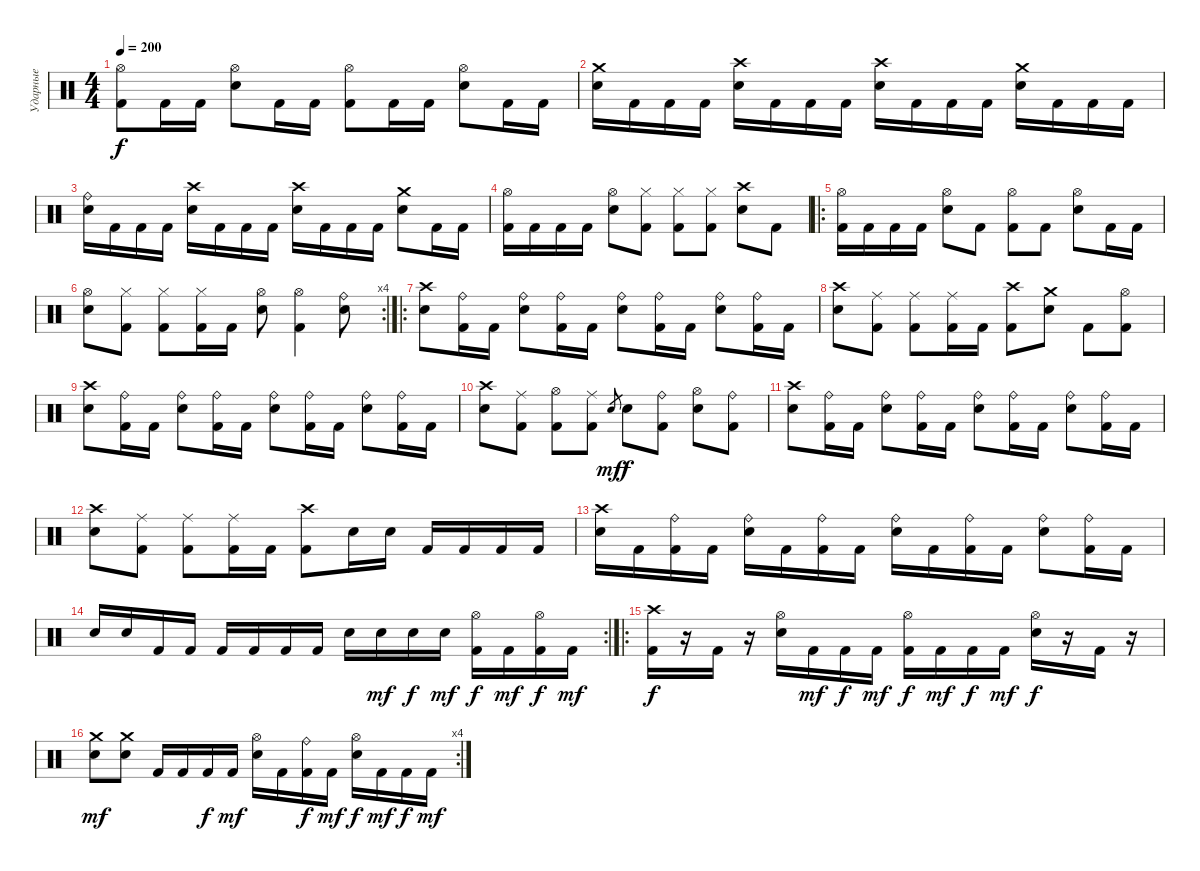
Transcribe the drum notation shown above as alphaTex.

\track ("Ударные" "Ударные") {instrument percussion}
\staff {score}
\articulation defaults
\ts (4 4)
\tempo 200
\clef neutral
\ks c
("Hi-Hat (open)" "Kick (hit) 2").8{dy f} "Kick (hit) 2".16 "Kick (hit) 2".16 ("Hi-Hat (open)" "Electric Snare (hit)").8 "Kick (hit) 2".16 "Kick (hit) 2".16 ("Hi-Hat (open)" "Kick (hit) 2").8 "Kick (hit) 2".16 "Kick (hit) 2".16 ("Hi-Hat (open)" "Electric Snare (hit)").8 "Kick (hit) 2".16 "Kick (hit) 2".16 |
("Crash medium (hit)" "Electric Snare (hit)").16 "Kick (hit) 2".16 "Kick (hit) 2".16 "Kick (hit) 2".16 ("Crash high (hit)" "Electric Snare (hit)").16 "Kick (hit) 2".16 "Kick (hit) 2".16 "Kick (hit) 2".16 ("Crash high (hit)" "Electric Snare (hit)").16 "Kick (hit) 2".16 "Kick (hit) 2".16 "Kick (hit) 2".16 ("Crash medium (hit)" "Electric Snare (hit)").16 "Kick (hit) 2".16 "Kick (hit) 2".16 "Kick (hit) 2".16 |
("Ride (bell)" "Electric Snare (hit)").16 "Kick (hit) 2".16 "Kick (hit) 2".16 "Kick (hit) 2".16 ("Crash high (hit)" "Electric Snare (hit)").16 "Kick (hit) 2".16 "Kick (hit) 2".16 "Kick (hit) 2".16 ("Crash high (hit)" "Electric Snare (hit)").16 "Kick (hit) 2".16 "Kick (hit) 2".16 "Kick (hit) 2".16 ("Crash medium (hit)" "Electric Snare (hit)").8 "Kick (hit) 2".16 "Kick (hit) 2".16 |
("Hi-Hat (open)" "Kick (hit) 2").16 "Kick (hit) 2".16 "Kick (hit) 2".16 "Kick (hit) 2".16 ("Hi-Hat (open)" "Electric Snare (hit)").8 ("Hi-Hat (closed)" "Kick (hit) 2").8 ("Hi-Hat (closed)" "Kick (hit) 2").8 ("Hi-Hat (closed)" "Kick (hit) 2").8 ("Crash high (hit)" "Electric Snare (hit)").8 "Kick (hit) 2".8 |
\ro
("Hi-Hat (open)" "Kick (hit) 2").16 "Kick (hit) 2".16 "Kick (hit) 2".16 "Kick (hit) 2".16 ("Hi-Hat (open)" "Electric Snare (hit)").8 "Kick (hit) 2".8 ("Hi-Hat (open)" "Kick (hit) 2").8 "Kick (hit) 2".8 ("Hi-Hat (open)" "Electric Snare (hit)").8 "Kick (hit) 2".16 "Kick (hit) 2".16 |
\rc 4
("Hi-Hat (open)" "Electric Snare (hit)").8 ("Hi-Hat (closed)" "Kick (hit) 2").8 ("Hi-Hat (closed)" "Kick (hit) 2").8 ("Hi-Hat (closed)" "Kick (hit) 2").16 "Kick (hit) 2".16 ("Hi-Hat (open)" "Electric Snare (hit)").8 ("Hi-Hat (open)" "Kick (hit) 2").4 ("Ride (bell)" "Electric Snare (hit)").8 |
\ro
("Crash high (hit)" "Electric Snare (hit)").8 ("Ride (bell)" "Kick (hit) 2").16 "Kick (hit) 2".16 ("Ride (bell)" "Electric Snare (hit)").8 ("Ride (bell)" "Kick (hit) 2").16 "Kick (hit) 2".16 ("Ride (bell)" "Electric Snare (hit)").8 ("Ride (bell)" "Kick (hit) 2").16 "Kick (hit) 2".16 ("Ride (bell)" "Electric Snare (hit)").8 ("Ride (bell)" "Kick (hit) 2").16 "Kick (hit) 2".16 |
("Crash high (hit)" "Electric Snare (hit)").8 ("Ride (middle)" "Kick (hit) 2").8 ("Ride (middle)" "Kick (hit) 2").8 ("Ride (middle)" "Kick (hit) 2").16 "Kick (hit) 2".16 ("Crash high (hit)" "Kick (hit) 2").8 ("Crash medium (hit)" "Electric Snare (hit)").8 "Kick (hit) 2".8 ("Hi-Hat (open)" "Kick (hit) 2").8 |
("Crash high (hit)" "Electric Snare (hit)").8 ("Ride (bell)" "Kick (hit) 2").16 "Kick (hit) 2".16 ("Ride (bell)" "Electric Snare (hit)").8 ("Ride (bell)" "Kick (hit) 2").16 "Kick (hit) 2".16 ("Ride (bell)" "Electric Snare (hit)").8 ("Ride (bell)" "Kick (hit) 2").16 "Kick (hit) 2".16 ("Ride (bell)" "Electric Snare (hit)").8 ("Ride (bell)" "Kick (hit) 2").16 "Kick (hit) 2".16 |
("Crash high (hit)" "Electric Snare (hit)").8 ("Ride (middle)" "Kick (hit) 2").8 ("Hi-Hat (open)" "Kick (hit) 2").8 ("Ride (middle)" "Kick (hit) 2").8 "Electric Snare (hit)".8{gr dy mf} "Electric Snare (hit)".8{dy f} ("Ride (bell)" "Kick (hit) 2").8 ("Hi-Hat (open)" "Electric Snare (hit)").8 ("Ride (bell)" "Kick (hit) 2").8 |
("Crash high (hit)" "Electric Snare (hit)").8 ("Ride (bell)" "Kick (hit) 2").16 "Kick (hit) 2".16 ("Ride (bell)" "Electric Snare (hit)").8 ("Ride (bell)" "Kick (hit) 2").16 "Kick (hit) 2".16 ("Ride (bell)" "Electric Snare (hit)").8 ("Ride (bell)" "Kick (hit) 2").16 "Kick (hit) 2".16 ("Ride (bell)" "Electric Snare (hit)").8 ("Ride (bell)" "Kick (hit) 2").16 "Kick (hit) 2".16 |
("Crash high (hit)" "Electric Snare (hit)").8 ("Ride (middle)" "Kick (hit) 2").8 ("Ride (middle)" "Kick (hit) 2").8 ("Ride (middle)" "Kick (hit) 2").16 "Kick (hit) 2".16 ("Crash high (hit)" "Kick (hit) 2").8 "Electric Snare (hit)".16 "Electric Snare (hit)".16 "Kick (hit) 2".16 "Kick (hit) 2".16 "Kick (hit) 2".16 "Kick (hit) 2".16 |
("Crash high (hit)" "Electric Snare (hit)").16 "Kick (hit) 2".16 ("Ride (bell)" "Kick (hit) 2").16 "Kick (hit) 2".16 ("Ride (bell)" "Electric Snare (hit)").16 "Kick (hit) 2".16 ("Ride (bell)" "Kick (hit) 2").16 "Kick (hit) 2".16 ("Ride (bell)" "Electric Snare (hit)").16 "Kick (hit) 2".16 ("Ride (bell)" "Kick (hit) 2").16 "Kick (hit) 2".16 ("Ride (bell)" "Electric Snare (hit)").8 ("Ride (bell)" "Kick (hit) 2").16 "Kick (hit) 2".16 |
\rc 2 "Electric Snare (hit)".16 "Electric Snare (hit)".16 "Kick (hit) 2".16 "Kick (hit) 2".16 "Kick (hit) 2".16 "Kick (hit) 2".16 "Kick (hit) 2".16 "Kick (hit) 2".16 "Electric Snare (hit)".16 "Electric Snare (hit)".16{dy mf} "Electric Snare (hit)".16{dy f} "Electric Snare (hit)".16{dy mf}
("Hi-Hat (open)" "Kick (hit) 2").16{dy f} "Kick (hit) 2".16{dy mf} ("Hi-Hat (open)" "Kick (hit) 2").16{dy f} "Kick (hit) 2".16{dy mf} |
\ro
("Crash high (hit)" "Kick (hit) 2").16{dy f} r.16 "Kick (hit) 2".16 r.16 ("Hi-Hat (open)" "Electric Snare (hit)").16 "Kick (hit) 2".16{dy mf} "Kick (hit) 2".16{dy f} "Kick (hit) 2".16{dy mf} ("Hi-Hat (open)" "Kick (hit) 2").16{dy f} "Kick (hit) 2".16{dy mf} "Kick (hit) 2".16{dy f} "Kick (hit) 2".16{dy mf} ("Hi-Hat (open)" "Electric Snare (hit)").16{dy f} r.16 "Kick (hit) 2".16 r.16 |
\rc 4
("Crash medium (hit)" "Electric Snare (hit)").8{dy mf} ("Crash medium (hit)" "Electric Snare (hit)").8 "Kick (hit) 2".16 "Kick (hit) 2".16 "Kick (hit) 2".16{dy f} "Kick (hit) 2".16{dy mf} ("Hi-Hat (open)" "Electric Snare (hit)").16 "Kick (hit) 2".16 ("Ride (bell)" "Kick (hit) 2").16{dy f} "Kick (hit) 2".16{dy mf} ("Hi-Hat (open)" "Electric Snare (hit)").16{dy f} "Kick (hit) 2".16{dy mf} "Kick (hit) 2".16{dy f} "Kick (hit) 2".16{dy mf}
